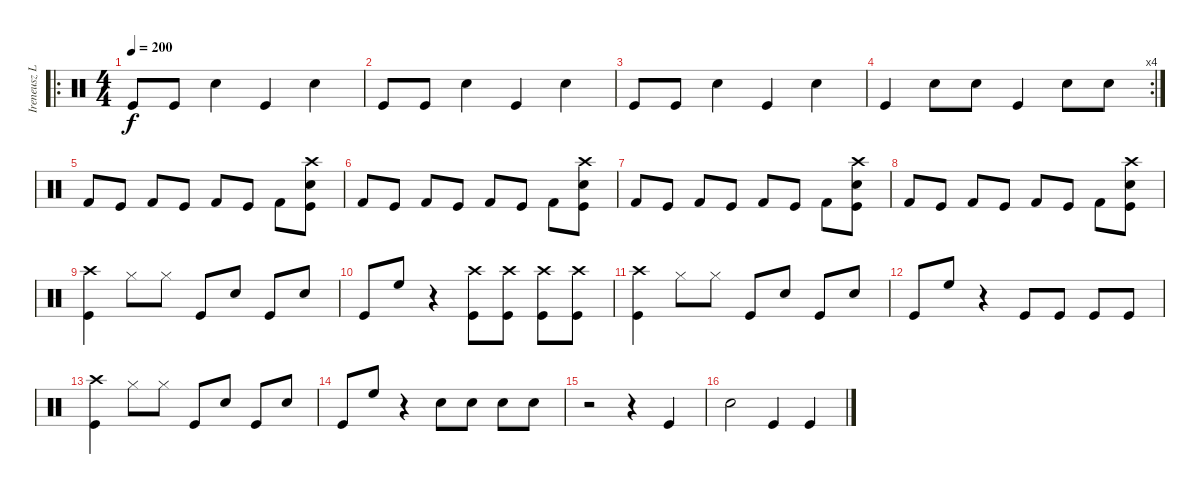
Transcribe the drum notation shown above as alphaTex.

\track ("Ireneusz Loth -Drums" "Ireneusz L") {instrument percussion}
\staff {score}
\articulation defaults
\ro
\ts (4 4)
\tempo 200
\clef neutral
\ks c "Kick (hit)".8{dy f} "Kick (hit)".8 "Snare (hit) 2".4 "Kick (hit)".4 "Snare (hit) 2".4
|
"Kick (hit)".8 "Kick (hit)".8 "Snare (hit) 2".4 "Kick (hit)".4 "Snare (hit) 2".4 |
"Kick (hit)".8 "Kick (hit)".8 "Snare (hit) 2".4 "Kick (hit)".4 "Snare (hit) 2".4 |
\rc 4 "Kick (hit)".4 "Snare (hit) 2".8 "Snare (hit) 2".8 "Kick (hit)".4 "Snare (hit) 2".8 "Snare (hit) 2".8
|
"Kick (hit) 2".8 "Kick (hit)".8 "Kick (hit) 2".8 "Kick (hit)".8 "Kick (hit) 2".8 "Kick (hit)".8 "Kick (hit) 2".8 ("Kick (hit)" "Snare (hit) 2" "Crash high (hit)").8 |
"Kick (hit) 2".8 "Kick (hit)".8 "Kick (hit) 2".8 "Kick (hit)".8 "Kick (hit) 2".8 "Kick (hit)".8 "Kick (hit) 2".8 ("Kick (hit)" "Snare (hit) 2" "Crash high (hit)").8 |
"Kick (hit) 2".8 "Kick (hit)".8 "Kick (hit) 2".8 "Kick (hit)".8 "Kick (hit) 2".8 "Kick (hit)".8 "Kick (hit) 2".8 ("Kick (hit)" "Snare (hit) 2" "Crash high (hit)").8 |
"Kick (hit) 2".8 "Kick (hit)".8 "Kick (hit) 2".8 "Kick (hit)".8 "Kick (hit) 2".8 "Kick (hit)".8 "Kick (hit) 2".8 ("Kick (hit)" "Snare (hit) 2" "Crash high (hit)").8 |
("Crash high (hit)" "Kick (hit)").4 "Hi-Hat (closed)".8 "Hi-Hat (closed)".8 "Kick (hit)".8 "Snare (hit) 2".8 "Kick (hit)".8 "Snare (hit) 2".8 |
"Kick (hit)".8 "High Floor Tom (hit)".8 r.4 ("Kick (hit)" "Crash high (hit)").8 ("Kick (hit)" "Crash high (hit)").8 ("Kick (hit)" "Crash high (hit)").8 ("Kick (hit)" "Crash high (hit)").8 |
("Crash high (hit)" "Kick (hit)").4 "Hi-Hat (closed)".8 "Hi-Hat (closed)".8 "Kick (hit)".8 "Snare (hit) 2".8 "Kick (hit)".8 "Snare (hit) 2".8 |
"Kick (hit)".8 "High Floor Tom (hit)".8 r.4 "Kick (hit)".8 "Kick (hit)".8 "Kick (hit)".8 "Kick (hit)".8 |
("Crash high (hit)" "Kick (hit)").4 "Hi-Hat (closed)".8 "Hi-Hat (closed)".8 "Kick (hit)".8 "Snare (hit) 2".8 "Kick (hit)".8 "Snare (hit) 2".8 |
"Kick (hit)".8 "High Floor Tom (hit)".8 r.4 "Snare (hit) 2".8 "Snare (hit) 2".8 "Snare (hit) 2".8 "Snare (hit) 2".8 |
r.2 r.4 "Kick (hit)".4 |
"Snare (hit) 2".2 "Kick (hit)".4 "Kick (hit)".4
